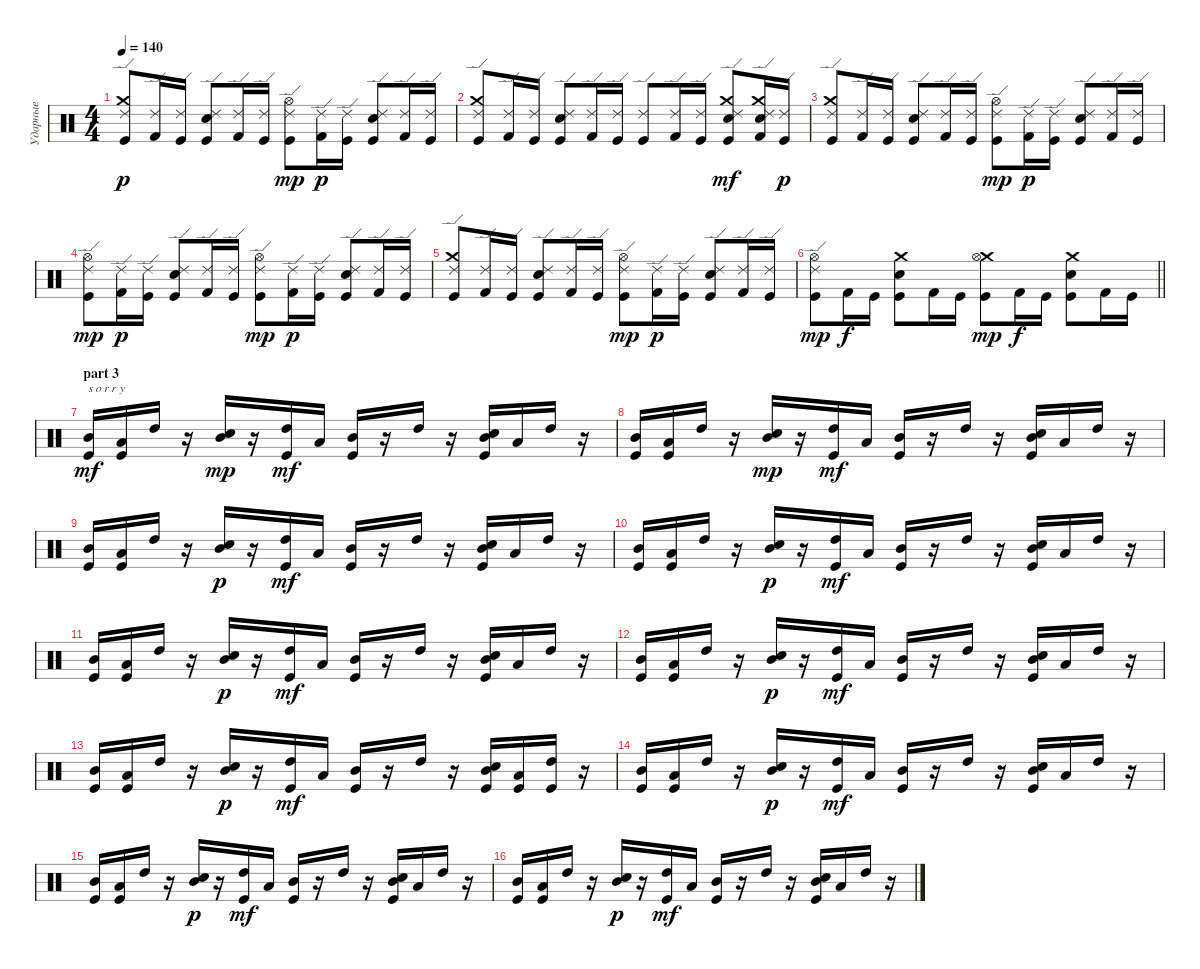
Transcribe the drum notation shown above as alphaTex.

\track ("Ударные" "Ударные") {instrument percussion}
\staff {score}
\articulation defaults
\ts (4 4)
\tempo 140
\clef neutral
\ks c
("Ride (edge) 2" "Crash medium (hit)" "Kick (hit)").8{dy p} ("Ride (edge) 2" "Kick (hit) 2").16 ("Ride (edge) 2" "Kick (hit)").16 ("Ride (edge) 2" "Electric Snare (hit)" "Kick (hit)").8 ("Ride (edge) 2" "Kick (hit) 2").16 ("Ride (edge) 2" "Kick (hit)").16 ("Ride (edge) 2" "Hi-Hat (open)" "Kick (hit)").8{dy mp} ("Ride (edge) 2" "Kick (hit) 2").16{dy p} ("Ride (edge) 2" "Kick (hit)").16 ("Ride (edge) 2" "Electric Snare (hit)" "Kick (hit)").8 ("Ride (edge) 2" "Kick (hit) 2").16 ("Ride (edge) 2" "Kick (hit)").16 |
("Ride (edge) 2" "Crash medium (hit)" "Kick (hit)").8 ("Ride (edge) 2" "Kick (hit) 2").16 ("Ride (edge) 2" "Kick (hit)").16 ("Ride (edge) 2" "Electric Snare (hit)" "Kick (hit)").8 ("Ride (edge) 2" "Kick (hit) 2").16 ("Ride (edge) 2" "Kick (hit)").16 ("Ride (edge) 2" "Kick (hit)").8 ("Ride (edge) 2" "Kick (hit) 2").16 ("Ride (edge) 2" "Kick (hit)").16 ("Ride (edge) 2" "Crash medium (hit)" "Electric Snare (hit)" "Kick (hit)").8{dy mf} ("Ride (edge) 2" "Crash medium (hit)" "Electric Snare (hit)" "Kick (hit) 2").16 ("Ride (edge) 2" "Kick (hit)").16{dy p} |
("Ride (edge) 2" "Crash medium (hit)" "Kick (hit)").8 ("Ride (edge) 2" "Kick (hit) 2").16 ("Ride (edge) 2" "Kick (hit)").16 ("Ride (edge) 2" "Electric Snare (hit)" "Kick (hit)").8 ("Ride (edge) 2" "Kick (hit) 2").16 ("Ride (edge) 2" "Kick (hit)").16 ("Ride (edge) 2" "Hi-Hat (open)" "Kick (hit)").8{dy mp} ("Ride (edge) 2" "Kick (hit) 2").16{dy p} ("Ride (edge) 2" "Kick (hit)").16 ("Ride (edge) 2" "Electric Snare (hit)" "Kick (hit)").8 ("Ride (edge) 2" "Kick (hit) 2").16 ("Ride (edge) 2" "Kick (hit)").16 |
("Ride (edge) 2" "Hi-Hat (open)" "Kick (hit)").8{dy mp} ("Ride (edge) 2" "Kick (hit) 2").16{dy p} ("Ride (edge) 2" "Kick (hit)").16 ("Ride (edge) 2" "Electric Snare (hit)" "Kick (hit)").8 ("Ride (edge) 2" "Kick (hit) 2").16 ("Ride (edge) 2" "Kick (hit)").16 ("Ride (edge) 2" "Hi-Hat (open)" "Kick (hit)").8{dy mp} ("Ride (edge) 2" "Kick (hit) 2").16{dy p} ("Ride (edge) 2" "Kick (hit)").16 ("Ride (edge) 2" "Electric Snare (hit)" "Kick (hit)").8 ("Ride (edge) 2" "Kick (hit) 2").16 ("Ride (edge) 2" "Kick (hit)").16 |
("Ride (edge) 2" "Crash medium (hit)" "Kick (hit)").8 ("Ride (edge) 2" "Kick (hit) 2").16 ("Ride (edge) 2" "Kick (hit)").16 ("Ride (edge) 2" "Electric Snare (hit)" "Kick (hit)").8 ("Ride (edge) 2" "Kick (hit) 2").16 ("Ride (edge) 2" "Kick (hit)").16 ("Ride (edge) 2" "Hi-Hat (open)" "Kick (hit)").8{dy mp} ("Ride (edge) 2" "Kick (hit) 2").16{dy p} ("Ride (edge) 2" "Kick (hit)").16 ("Ride (edge) 2" "Electric Snare (hit)" "Kick (hit)").8 ("Ride (edge) 2" "Kick (hit) 2").16 ("Ride (edge) 2" "Kick (hit)").16 |
\barLineRight lightlight
("Ride (edge) 2" "Hi-Hat (open)" "Kick (hit)").8{dy mp} "Kick (hit) 2".16{dy f} "Kick (hit)".16 ("Crash medium (hit)" "Electric Snare (hit)" "Kick (hit)").8 "Kick (hit) 2".16 "Kick (hit)".16 ("Crash medium (hit)" "Hi-Hat (open)" "Kick (hit)").8{dy mp} "Kick (hit) 2".16{dy f} "Kick (hit)".16 ("Crash medium (hit)" "Electric Snare (hit)" "Kick (hit)").8 "Kick (hit) 2".16 "Kick (hit)".16 |
\section ("" "part 3")
("Mid Tom (hit)" "Kick (hit)").16{txt "s o r r y" dy mf} ("Low Tom (hit)" "Kick (hit)").16 "High Tom (hit)".16 r.16 ("Mid Tom (hit)" "Electric Snare (hit)").16{dy mp} r.16 ("High Tom (hit)" "Kick (hit)").16{dy mf} "Low Tom (hit)".16 ("Mid Tom (hit)" "Kick (hit)").16 r.16 "High Tom (hit)".16 r.16 ("Mid Tom (hit)" "Electric Snare (hit)" "Kick (hit)").16 "Low Tom (hit)".16 "High Tom (hit)".16 r.16 |
("Mid Tom (hit)" "Kick (hit)").16 ("Low Tom (hit)" "Kick (hit)").16 "High Tom (hit)".16 r.16 ("Mid Tom (hit)" "Electric Snare (hit)").16{dy mp} r.16 ("High Tom (hit)" "Kick (hit)").16{dy mf} "Low Tom (hit)".16 ("Mid Tom (hit)" "Kick (hit)").16 r.16 "High Tom (hit)".16 r.16 ("Mid Tom (hit)" "Electric Snare (hit)" "Kick (hit)").16 "Low Tom (hit)".16 "High Tom (hit)".16 r.16 |
("Mid Tom (hit)" "Kick (hit)").16 ("Low Tom (hit)" "Kick (hit)").16 "High Tom (hit)".16 r.16 ("Mid Tom (hit)" "Electric Snare (hit)").16{dy p} r.16 ("High Tom (hit)" "Kick (hit)").16{dy mf} "Low Tom (hit)".16 ("Mid Tom (hit)" "Kick (hit)").16 r.16 "High Tom (hit)".16 r.16 ("Mid Tom (hit)" "Electric Snare (hit)" "Kick (hit)").16 "Low Tom (hit)".16 "High Tom (hit)".16 r.16 |
("Mid Tom (hit)" "Kick (hit)").16 ("Low Tom (hit)" "Kick (hit)").16 "High Tom (hit)".16 r.16 ("Mid Tom (hit)" "Electric Snare (hit)").16{dy p} r.16 ("High Tom (hit)" "Kick (hit)").16{dy mf} "Low Tom (hit)".16 ("Mid Tom (hit)" "Kick (hit)").16 r.16 "High Tom (hit)".16 r.16 ("Mid Tom (hit)" "Electric Snare (hit)" "Kick (hit)").16 "Low Tom (hit)".16 "High Tom (hit)".16 r.16 |
("Mid Tom (hit)" "Kick (hit)").16 ("Low Tom (hit)" "Kick (hit)").16 "High Tom (hit)".16 r.16 ("Mid Tom (hit)" "Electric Snare (hit)").16{dy p} r.16 ("High Tom (hit)" "Kick (hit)").16{dy mf} "Low Tom (hit)".16 ("Mid Tom (hit)" "Kick (hit)").16 r.16 "High Tom (hit)".16 r.16 ("Mid Tom (hit)" "Electric Snare (hit)" "Kick (hit)").16 "Low Tom (hit)".16 "High Tom (hit)".16 r.16 |
("Mid Tom (hit)" "Kick (hit)").16 ("Low Tom (hit)" "Kick (hit)").16 "High Tom (hit)".16 r.16 ("Mid Tom (hit)" "Electric Snare (hit)").16{dy p} r.16 ("High Tom (hit)" "Kick (hit)").16{dy mf} "Low Tom (hit)".16 ("Mid Tom (hit)" "Kick (hit)").16 r.16 "High Tom (hit)".16 r.16 ("Mid Tom (hit)" "Electric Snare (hit)" "Kick (hit)").16 "Low Tom (hit)".16 "High Tom (hit)".16 r.16 |
("Mid Tom (hit)" "Kick (hit)").16 ("Low Tom (hit)" "Kick (hit)").16 "High Tom (hit)".16 r.16 ("Mid Tom (hit)" "Electric Snare (hit)").16{dy p} r.16 ("High Tom (hit)" "Kick (hit)").16{dy mf} "Low Tom (hit)".16 ("Mid Tom (hit)" "Kick (hit)").16 r.16 "High Tom (hit)".16 r.16 ("Mid Tom (hit)" "Electric Snare (hit)" "Kick (hit)").16 ("Low Tom (hit)" "Kick (hit)").16 ("High Tom (hit)" "Kick (hit)").16 r.16 |
("Mid Tom (hit)" "Kick (hit)").16 ("Low Tom (hit)" "Kick (hit)").16 "High Tom (hit)".16 r.16 ("Mid Tom (hit)" "Electric Snare (hit)").16{dy p} r.16 ("High Tom (hit)" "Kick (hit)").16{dy mf} "Low Tom (hit)".16 ("Mid Tom (hit)" "Kick (hit)").16 r.16 "High Tom (hit)".16 r.16 ("Mid Tom (hit)" "Electric Snare (hit)" "Kick (hit)").16 "Low Tom (hit)".16 "High Tom (hit)".16 r.16 |
("Mid Tom (hit)" "Kick (hit)").16 ("Low Tom (hit)" "Kick (hit)").16 "High Tom (hit)".16 r.16 ("Mid Tom (hit)" "Electric Snare (hit)").16{dy p} r.16 ("High Tom (hit)" "Kick (hit)").16{dy mf} "Low Tom (hit)".16 ("Mid Tom (hit)" "Kick (hit)").16 r.16 "High Tom (hit)".16 r.16 ("Mid Tom (hit)" "Electric Snare (hit)" "Kick (hit)").16 "Low Tom (hit)".16 "High Tom (hit)".16 r.16 |
("Mid Tom (hit)" "Kick (hit)").16 ("Low Tom (hit)" "Kick (hit)").16 "High Tom (hit)".16 r.16 ("Mid Tom (hit)" "Electric Snare (hit)").16{dy p} r.16 ("High Tom (hit)" "Kick (hit)").16{dy mf} "Low Tom (hit)".16 ("Mid Tom (hit)" "Kick (hit)").16 r.16 "High Tom (hit)".16 r.16 ("Mid Tom (hit)" "Electric Snare (hit)" "Kick (hit)").16 "Low Tom (hit)".16 "High Tom (hit)".16 r.16
